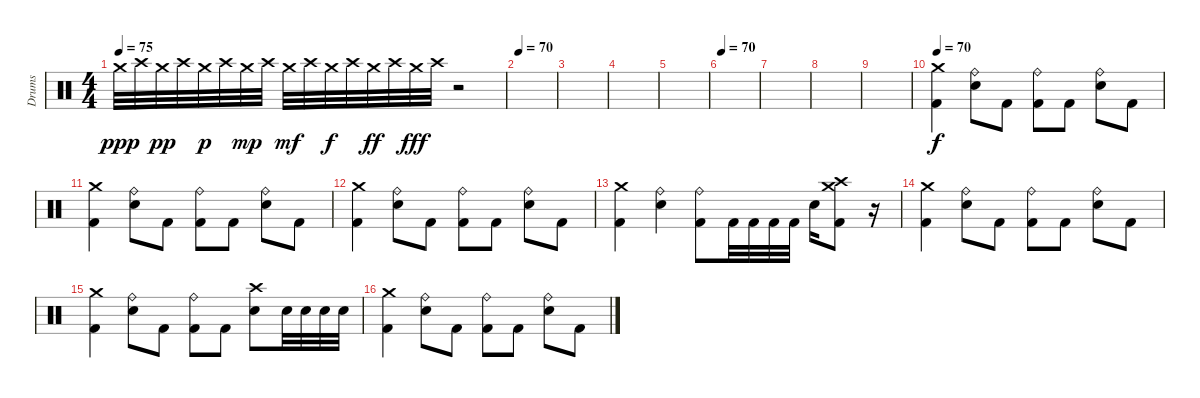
\track ("Drums" "Drums") {instrument percussion}
\staff {score}
\articulation defaults
\ts (4 4)
\tempo 75
\clef neutral
\ks c "Crash medium (hit)".32{dy ppp} "Crash high (hit)".32 "Crash medium (hit)".32{dy pp} "Crash high (hit)".32 "Crash medium (hit)".32{dy p} "Crash high (hit)".32 "Crash medium (hit)".32{dy mp} "Crash high (hit)".32 "Crash medium (hit)".32{dy mf} "Crash high (hit)".32 "Crash medium (hit)".32{dy f} "Crash high (hit)".32 "Crash medium (hit)".32{dy ff} "Crash high (hit)".32 "Crash medium (hit)".32{dy fff} "Crash high (hit)".32
r.2 |
\tempo 70
|
|
|
|
\tempo 70
|
|
|
|
\tempo 70
("Crash medium (hit)" "Kick (hit) 2").4{dy f} ("Ride (bell)" "Snare (hit) 2").8 "Kick (hit) 2".8 ("Ride (bell)" "Kick (hit) 2").8 "Kick (hit) 2".8 ("Ride (bell)" "Snare (hit) 2").8 "Kick (hit) 2".8 |
("Crash medium (hit)" "Kick (hit) 2").4 ("Ride (bell)" "Snare (hit) 2").8 "Kick (hit) 2".8 ("Ride (bell)" "Kick (hit) 2").8 "Kick (hit) 2".8 ("Ride (bell)" "Snare (hit) 2").8 "Kick (hit) 2".8 |
("Crash medium (hit)" "Kick (hit) 2").4 ("Ride (bell)" "Snare (hit) 2").8 "Kick (hit) 2".8 ("Ride (bell)" "Kick (hit) 2").8 "Kick (hit) 2".8 ("Ride (bell)" "Snare (hit) 2").8 "Kick (hit) 2".8 |
("Crash medium (hit)" "Kick (hit) 2").4 ("Ride (bell)" "Snare (hit) 2").4 ("Ride (bell)" "Kick (hit) 2").8 "Kick (hit) 2".32 "Kick (hit) 2".32 "Kick (hit) 2".32 "Kick (hit) 2".32 "Snare (hit) 2".16 ("Crash high (hit)" "Crash medium (hit)" "Kick (hit) 2").8 r.16 |
("Crash medium (hit)" "Kick (hit) 2").4 ("Ride (bell)" "Snare (hit) 2").8 "Kick (hit) 2".8 ("Ride (bell)" "Kick (hit) 2").8 "Kick (hit) 2".8 ("Ride (bell)" "Snare (hit) 2").8 "Kick (hit) 2".8 |
("Crash medium (hit)" "Kick (hit) 2").4 ("Ride (bell)" "Snare (hit) 2").8 "Kick (hit) 2".8 ("Ride (bell)" "Kick (hit) 2").8 "Kick (hit) 2".8 ("Crash high (hit)" "Snare (hit) 2").8 "Snare (hit) 2".32 "Snare (hit) 2".32 "Snare (hit) 2".32 "Snare (hit) 2".32 |
("Crash medium (hit)" "Kick (hit) 2").4 ("Ride (bell)" "Snare (hit) 2").8 "Kick (hit) 2".8 ("Ride (bell)" "Kick (hit) 2").8 "Kick (hit) 2".8 ("Ride (bell)" "Snare (hit) 2").8 "Kick (hit) 2".8
